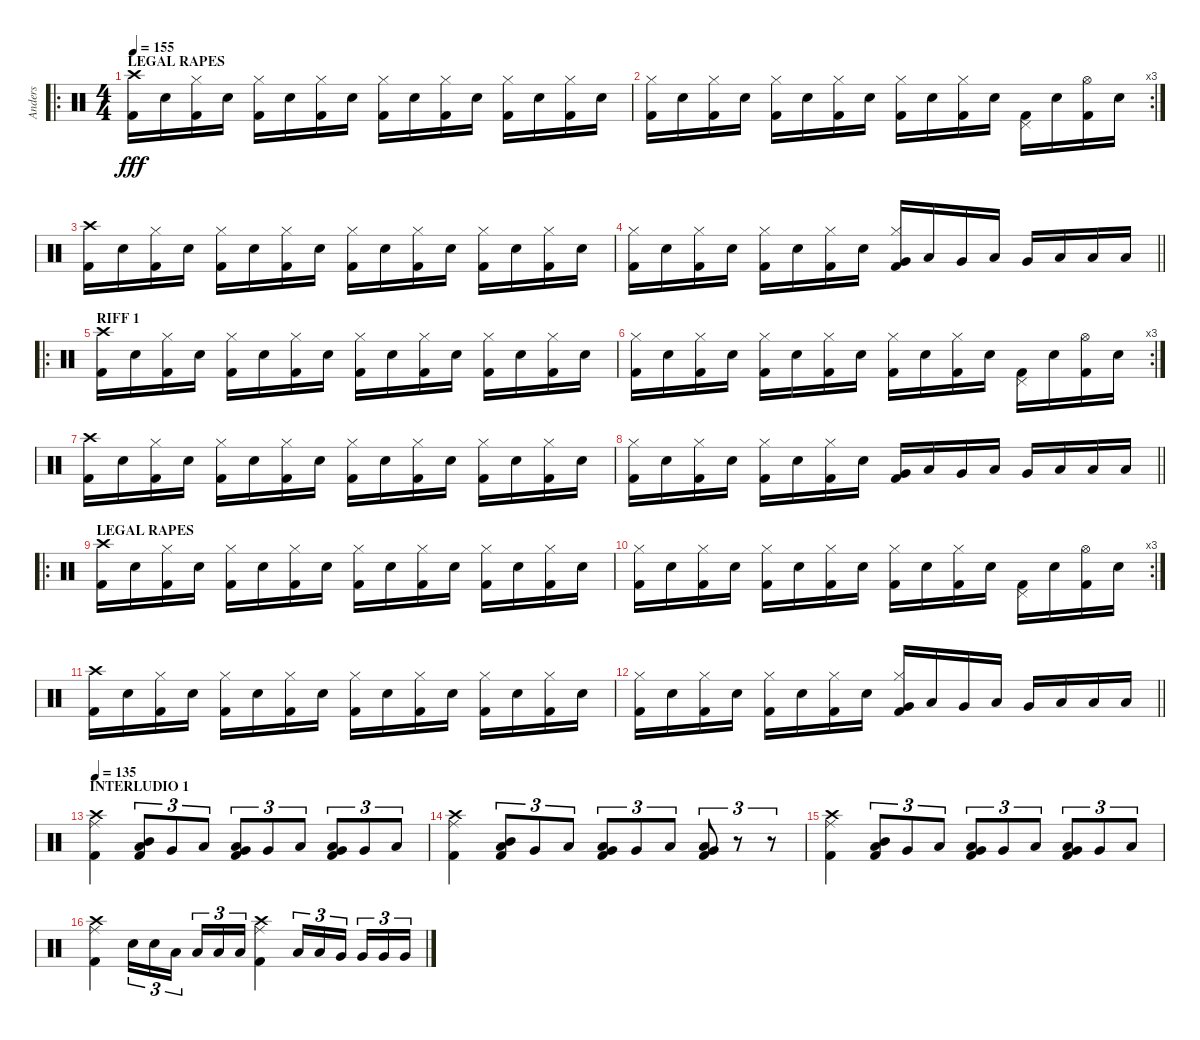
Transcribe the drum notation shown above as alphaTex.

\track ("Anders" "Anders") {instrument percussion}
\staff {score}
\articulation defaults
\ro
\ts (4 4)
\section ("" "LEGAL RAPES")
\tempo 155
\clef neutral
\ks c
("Crash high (hit)" "Kick (hit) 2").16{dy fff} "Snare (hit) 2".16 ("Hi-Hat (closed)" "Kick (hit) 2").16 "Snare (hit) 2".16 ("Hi-Hat (closed)" "Kick (hit) 2").16 "Snare (hit) 2".16 ("Hi-Hat (closed)" "Kick (hit) 2").16 "Snare (hit) 2".16 ("Hi-Hat (closed)" "Kick (hit) 2").16 "Snare (hit) 2".16 ("Hi-Hat (closed)" "Kick (hit) 2").16 "Snare (hit) 2".16 ("Hi-Hat (closed)" "Kick (hit) 2").16 "Snare (hit) 2".16 ("Hi-Hat (closed)" "Kick (hit) 2").16 "Snare (hit) 2".16 |
\rc 3
("Hi-Hat (closed)" "Kick (hit) 2").16 "Snare (hit) 2".16 ("Hi-Hat (closed)" "Kick (hit) 2").16 "Snare (hit) 2".16 ("Hi-Hat (closed)" "Kick (hit) 2").16 "Snare (hit) 2".16 ("Hi-Hat (closed)" "Kick (hit) 2").16 "Snare (hit) 2".16 ("Hi-Hat (closed)" "Kick (hit) 2").16 "Snare (hit) 2".16 ("Hi-Hat (closed)" "Kick (hit) 2").16 "Snare (hit) 2".16 ("Pedal Hi-Hat (hit)" "Kick (hit) 2").16 "Snare (hit) 2".16 ("Hi-Hat (open)" "Kick (hit) 2").16 "Snare (hit) 2".16 |
("Crash high (hit)" "Kick (hit) 2").16 "Snare (hit) 2".16 ("Hi-Hat (closed)" "Kick (hit) 2").16 "Snare (hit) 2".16 ("Hi-Hat (closed)" "Kick (hit) 2").16 "Snare (hit) 2".16 ("Hi-Hat (closed)" "Kick (hit) 2").16 "Snare (hit) 2".16 ("Hi-Hat (closed)" "Kick (hit) 2").16 "Snare (hit) 2".16 ("Hi-Hat (closed)" "Kick (hit) 2").16 "Snare (hit) 2".16 ("Hi-Hat (closed)" "Kick (hit) 2").16 "Snare (hit) 2".16 ("Hi-Hat (closed)" "Kick (hit) 2").16 "Snare (hit) 2".16 |
\barLineRight lightlight
("Hi-Hat (closed)" "Kick (hit) 2").16 "Snare (hit) 2".16 ("Hi-Hat (closed)" "Kick (hit) 2").16 "Snare (hit) 2".16 ("Hi-Hat (closed)" "Kick (hit) 2").16 "Snare (hit) 2".16 ("Hi-Hat (closed)" "Kick (hit) 2").16 "Snare (hit) 2".16 ("Hi-Hat (closed)" "Very Low Tom (hit)" "Kick (hit) 2").16 "Low Tom (hit)".16 "Very Low Tom (hit)".16 "Low Tom (hit)".16 "Very Low Tom (hit)".16 "Low Tom (hit)".16 "Low Floor Tom (hit)".16 "Low Tom (hit)".16 |
\ro
\section ("" "RIFF 1")
("Crash high (hit)" "Kick (hit) 2").16 "Snare (hit) 2".16 ("Hi-Hat (closed)" "Kick (hit) 2").16 "Snare (hit) 2".16 ("Hi-Hat (closed)" "Kick (hit) 2").16 "Snare (hit) 2".16 ("Hi-Hat (closed)" "Kick (hit) 2").16 "Snare (hit) 2".16 ("Hi-Hat (closed)" "Kick (hit) 2").16 "Snare (hit) 2".16 ("Hi-Hat (closed)" "Kick (hit) 2").16 "Snare (hit) 2".16 ("Hi-Hat (closed)" "Kick (hit) 2").16 "Snare (hit) 2".16 ("Hi-Hat (closed)" "Kick (hit) 2").16 "Snare (hit) 2".16 |
\rc 3
("Hi-Hat (closed)" "Kick (hit) 2").16 "Snare (hit) 2".16 ("Hi-Hat (closed)" "Kick (hit) 2").16 "Snare (hit) 2".16 ("Hi-Hat (closed)" "Kick (hit) 2").16 "Snare (hit) 2".16 ("Hi-Hat (closed)" "Kick (hit) 2").16 "Snare (hit) 2".16 ("Hi-Hat (closed)" "Kick (hit) 2").16 "Snare (hit) 2".16 ("Hi-Hat (closed)" "Kick (hit) 2").16 "Snare (hit) 2".16 ("Pedal Hi-Hat (hit)" "Kick (hit) 2").16 "Snare (hit) 2".16 ("Hi-Hat (open)" "Kick (hit) 2").16 "Snare (hit) 2".16 |
("Crash high (hit)" "Kick (hit) 2").16 "Snare (hit) 2".16 ("Hi-Hat (closed)" "Kick (hit) 2").16 "Snare (hit) 2".16 ("Hi-Hat (closed)" "Kick (hit) 2").16 "Snare (hit) 2".16 ("Hi-Hat (closed)" "Kick (hit) 2").16 "Snare (hit) 2".16 ("Hi-Hat (closed)" "Kick (hit) 2").16 "Snare (hit) 2".16 ("Hi-Hat (closed)" "Kick (hit) 2").16 "Snare (hit) 2".16 ("Hi-Hat (closed)" "Kick (hit) 2").16 "Snare (hit) 2".16 ("Hi-Hat (closed)" "Kick (hit) 2").16 "Snare (hit) 2".16 |
\barLineRight lightlight
("Hi-Hat (closed)" "Kick (hit) 2").16 "Snare (hit) 2".16 ("Hi-Hat (closed)" "Kick (hit) 2").16 "Snare (hit) 2".16 ("Hi-Hat (closed)" "Kick (hit) 2").16 "Snare (hit) 2".16 ("Hi-Hat (closed)" "Kick (hit) 2").16 "Snare (hit) 2".16 ("Very Low Tom (hit)" "Kick (hit) 2").16 "Low Tom (hit)".16 "Very Low Tom (hit)".16 "Low Tom (hit)".16 "Very Low Tom (hit)".16 "Low Tom (hit)".16 "Low Floor Tom (hit)".16 "Low Tom (hit)".16 |
\ro
\section ("" "LEGAL RAPES")
("Crash high (hit)" "Kick (hit) 2").16 "Snare (hit) 2".16 ("Hi-Hat (closed)" "Kick (hit) 2").16 "Snare (hit) 2".16 ("Hi-Hat (closed)" "Kick (hit) 2").16 "Snare (hit) 2".16 ("Hi-Hat (closed)" "Kick (hit) 2").16 "Snare (hit) 2".16 ("Hi-Hat (closed)" "Kick (hit) 2").16 "Snare (hit) 2".16 ("Hi-Hat (closed)" "Kick (hit) 2").16 "Snare (hit) 2".16 ("Hi-Hat (closed)" "Kick (hit) 2").16 "Snare (hit) 2".16 ("Hi-Hat (closed)" "Kick (hit) 2").16 "Snare (hit) 2".16 |
\rc 3
("Hi-Hat (closed)" "Kick (hit) 2").16 "Snare (hit) 2".16 ("Hi-Hat (closed)" "Kick (hit) 2").16 "Snare (hit) 2".16 ("Hi-Hat (closed)" "Kick (hit) 2").16 "Snare (hit) 2".16 ("Hi-Hat (closed)" "Kick (hit) 2").16 "Snare (hit) 2".16 ("Hi-Hat (closed)" "Kick (hit) 2").16 "Snare (hit) 2".16 ("Hi-Hat (closed)" "Kick (hit) 2").16 "Snare (hit) 2".16 ("Pedal Hi-Hat (hit)" "Kick (hit) 2").16 "Snare (hit) 2".16 ("Hi-Hat (open)" "Kick (hit) 2").16 "Snare (hit) 2".16 |
("Crash high (hit)" "Kick (hit) 2").16 "Snare (hit) 2".16 ("Hi-Hat (closed)" "Kick (hit) 2").16 "Snare (hit) 2".16 ("Hi-Hat (closed)" "Kick (hit) 2").16 "Snare (hit) 2".16 ("Hi-Hat (closed)" "Kick (hit) 2").16 "Snare (hit) 2".16 ("Hi-Hat (closed)" "Kick (hit) 2").16 "Snare (hit) 2".16 ("Hi-Hat (closed)" "Kick (hit) 2").16 "Snare (hit) 2".16 ("Hi-Hat (closed)" "Kick (hit) 2").16 "Snare (hit) 2".16 ("Hi-Hat (closed)" "Kick (hit) 2").16 "Snare (hit) 2".16 |
\barLineRight lightlight
("Hi-Hat (closed)" "Kick (hit) 2").16 "Snare (hit) 2".16 ("Hi-Hat (closed)" "Kick (hit) 2").16 "Snare (hit) 2".16 ("Hi-Hat (closed)" "Kick (hit) 2").16 "Snare (hit) 2".16 ("Hi-Hat (closed)" "Kick (hit) 2").16 "Snare (hit) 2".16 ("Hi-Hat (closed)" "Very Low Tom (hit)" "Kick (hit) 2").16 "Low Tom (hit)".16 "Very Low Tom (hit)".16 "Low Tom (hit)".16 "Very Low Tom (hit)".16 "Low Tom (hit)".16 "Low Floor Tom (hit)".16 "Low Tom (hit)".16 |
\section ("" "INTERLUDIO 1")
\tempo 135
("Ride (middle)" "Crash high (hit)" "Kick (hit) 2").4 ("Mid Tom (hit)" "Low Tom (hit)" "Kick (hit) 2").8{tu (3 2)} "Very Low Tom (hit)".8{tu (3 2)} "Low Floor Tom (hit)".8{tu (3 2)} ("Low Tom (hit)" "Very Low Tom (hit)" "Kick (hit) 2").8{tu (3 2)} "Very Low Tom (hit)".8{tu (3 2)} "Low Floor Tom (hit)".8{tu (3 2)} ("Low Tom (hit)" "Very Low Tom (hit)" "Kick (hit) 2").8{tu (3 2)} "Very Low Tom (hit)".8{tu (3 2)} "Low Floor Tom (hit)".8{tu (3 2)} |
("Ride (middle)" "Crash high (hit)" "Kick (hit) 2").4 ("Mid Tom (hit)" "Low Tom (hit)" "Kick (hit) 2").8{tu (3 2)} "Very Low Tom (hit)".8{tu (3 2)} "Low Floor Tom (hit)".8{tu (3 2)} ("Low Tom (hit)" "Very Low Tom (hit)" "Kick (hit) 2").8{tu (3 2)} "Very Low Tom (hit)".8{tu (3 2)} "Low Floor Tom (hit)".8{tu (3 2)} ("Low Tom (hit)" "Very Low Tom (hit)" "Kick (hit) 2").8{tu (3 2)} r.8{tu (3 2)} r.8{tu (3 2)} |
("Ride (middle)" "Crash high (hit)" "Kick (hit) 2").4 ("Mid Tom (hit)" "Low Tom (hit)" "Kick (hit) 2").8{tu (3 2)} "Very Low Tom (hit)".8{tu (3 2)} "Low Floor Tom (hit)".8{tu (3 2)} ("Low Tom (hit)" "Very Low Tom (hit)" "Kick (hit) 2").8{tu (3 2)} "Very Low Tom (hit)".8{tu (3 2)} "Low Floor Tom (hit)".8{tu (3 2)} ("Low Tom (hit)" "Very Low Tom (hit)" "Kick (hit) 2").8{tu (3 2)} "Very Low Tom (hit)".8{tu (3 2)} "Low Floor Tom (hit)".8{tu (3 2)} |
("Ride (middle)" "Crash high (hit)" "Kick (hit) 2").4 "Snare (hit) 2".16{tu (3 2)} "Snare (hit) 2".16{tu (3 2)} "Low Tom (hit)".16{tu (3 2)} "Low Tom (hit)".16{tu (3 2)} "Low Tom (hit)".16{tu (3 2)} "Low Tom (hit)".16{tu (3 2)} ("Ride (middle)" "Crash high (hit)" "Kick (hit) 2").4 "Low Tom (hit)".16{tu (3 2)} "Low Tom (hit)".16{tu (3 2)} "Very Low Tom (hit)".16{tu (3 2)} "Very Low Tom (hit)".16{tu (3 2)} "Very Low Tom (hit)".16{tu (3 2)} "Very Low Tom (hit)".16{tu (3 2)}
